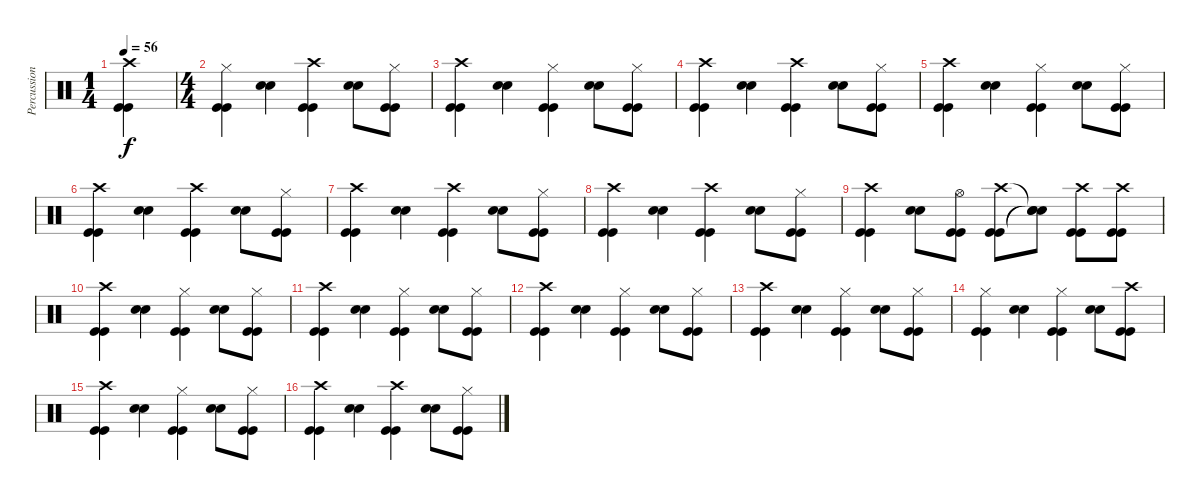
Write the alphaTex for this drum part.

\track ("Percussion" "Percussion") {instrument percussion}
\staff {score}
\articulation defaults
\ts (1 4)
\tempo 56
\clef neutral
\ks c
("Kick (hit)" "Kick (hit)" "Crash high (hit)").4{dy f} |
\ts (4 4)
("Kick (hit)" "Kick (hit)" "Hi-Hat (closed)").4 ("Snare (hit) 2" "Snare (hit) 2").4 ("Kick (hit)" "Kick (hit)" "Crash high (hit)").4 ("Snare (hit) 2" "Snare (hit) 2").8 ("Kick (hit)" "Kick (hit)" "Hi-Hat (closed)").8 |
("Kick (hit)" "Kick (hit)" "Crash high (hit)").4 ("Snare (hit) 2" "Snare (hit) 2").4 ("Kick (hit)" "Kick (hit)" "Hi-Hat (closed)").4 ("Snare (hit) 2" "Snare (hit) 2").8 ("Kick (hit)" "Kick (hit)" "Hi-Hat (closed)").8 |
("Kick (hit)" "Kick (hit)" "Crash high (hit)").4 ("Snare (hit) 2" "Snare (hit) 2").4 ("Kick (hit)" "Kick (hit)" "Crash high (hit)").4 ("Snare (hit) 2" "Snare (hit) 2").8 ("Kick (hit)" "Kick (hit)" "Hi-Hat (closed)").8 |
("Kick (hit)" "Kick (hit)" "Crash high (hit)").4 ("Snare (hit) 2" "Snare (hit) 2").4 ("Kick (hit)" "Kick (hit)" "Hi-Hat (closed)").4 ("Snare (hit) 2" "Snare (hit) 2").8 ("Kick (hit)" "Kick (hit)" "Hi-Hat (closed)").8 |
("Kick (hit)" "Kick (hit)" "Crash high (hit)").4 ("Snare (hit) 2" "Snare (hit) 2").4 ("Kick (hit)" "Kick (hit)" "Crash high (hit)").4 ("Snare (hit) 2" "Snare (hit) 2").8 ("Kick (hit)" "Kick (hit)" "Hi-Hat (closed)").8 |
("Kick (hit)" "Kick (hit)" "Crash high (hit)").4 ("Snare (hit) 2" "Snare (hit) 2").4 ("Kick (hit)" "Kick (hit)" "Crash high (hit)").4 ("Snare (hit) 2" "Snare (hit) 2").8 ("Kick (hit)" "Kick (hit)" "Hi-Hat (closed)").8 |
("Kick (hit)" "Kick (hit)" "Crash high (hit)").4 ("Snare (hit) 2" "Snare (hit) 2").4 ("Kick (hit)" "Kick (hit)" "Crash high (hit)").4 ("Snare (hit) 2" "Snare (hit) 2").8 ("Kick (hit)" "Kick (hit)" "Hi-Hat (closed)").8 |
("Kick (hit)" "Kick (hit)" "Crash high (hit)").4 ("Snare (hit) 2" "Snare (hit) 2").8 ("Kick (hit)" "Hi-Hat (open)" "Kick (hit)").8 ("Kick (hit)" "Crash high (hit)" "Kick (hit)").8 ("Snare (hit)"{t} "Snare (hit)"{t} "Snare (hit)"{t}).8 ("Kick (hit)" "Crash high (hit)" "Kick (hit)").8 ("Kick (hit)" "Crash high (hit)" "Kick (hit)").8 |
("Kick (hit)" "Kick (hit)" "Crash high (hit)").4 ("Snare (hit) 2" "Snare (hit) 2").4 ("Kick (hit)" "Kick (hit)" "Hi-Hat (closed)").4 ("Snare (hit) 2" "Snare (hit) 2").8 ("Kick (hit)" "Kick (hit)" "Hi-Hat (closed)").8 |
("Kick (hit)" "Kick (hit)" "Crash high (hit)").4 ("Snare (hit) 2" "Snare (hit) 2").4 ("Kick (hit)" "Kick (hit)" "Hi-Hat (closed)").4 ("Snare (hit) 2" "Snare (hit) 2").8 ("Kick (hit)" "Kick (hit)" "Hi-Hat (closed)").8 |
("Kick (hit)" "Kick (hit)" "Crash high (hit)").4 ("Snare (hit) 2" "Snare (hit) 2").4 ("Kick (hit)" "Kick (hit)" "Hi-Hat (closed)").4 ("Snare (hit) 2" "Snare (hit) 2").8 ("Kick (hit)" "Kick (hit)" "Hi-Hat (closed)").8 |
("Kick (hit)" "Kick (hit)" "Crash high (hit)").4 ("Snare (hit) 2" "Snare (hit) 2").4 ("Kick (hit)" "Kick (hit)" "Hi-Hat (closed)").4 ("Snare (hit) 2" "Snare (hit) 2").8 ("Kick (hit)" "Kick (hit)" "Hi-Hat (closed)").8 |
("Kick (hit)" "Kick (hit)" "Hi-Hat (closed)").4 ("Snare (hit) 2" "Snare (hit) 2").4 ("Kick (hit)" "Kick (hit)" "Hi-Hat (closed)").4 ("Snare (hit) 2" "Snare (hit) 2").8 ("Kick (hit)" "Kick (hit)" "Crash high (hit)").8 |
("Kick (hit)" "Kick (hit)" "Crash high (hit)").4 ("Snare (hit) 2" "Snare (hit) 2").4 ("Kick (hit)" "Kick (hit)" "Hi-Hat (closed)").4 ("Snare (hit) 2" "Snare (hit) 2").8 ("Kick (hit)" "Kick (hit)" "Hi-Hat (closed)").8 |
("Kick (hit)" "Kick (hit)" "Crash high (hit)").4 ("Snare (hit) 2" "Snare (hit) 2").4 ("Kick (hit)" "Kick (hit)" "Crash high (hit)").4 ("Snare (hit) 2" "Snare (hit) 2").8 ("Kick (hit)" "Kick (hit)" "Hi-Hat (closed)").8
